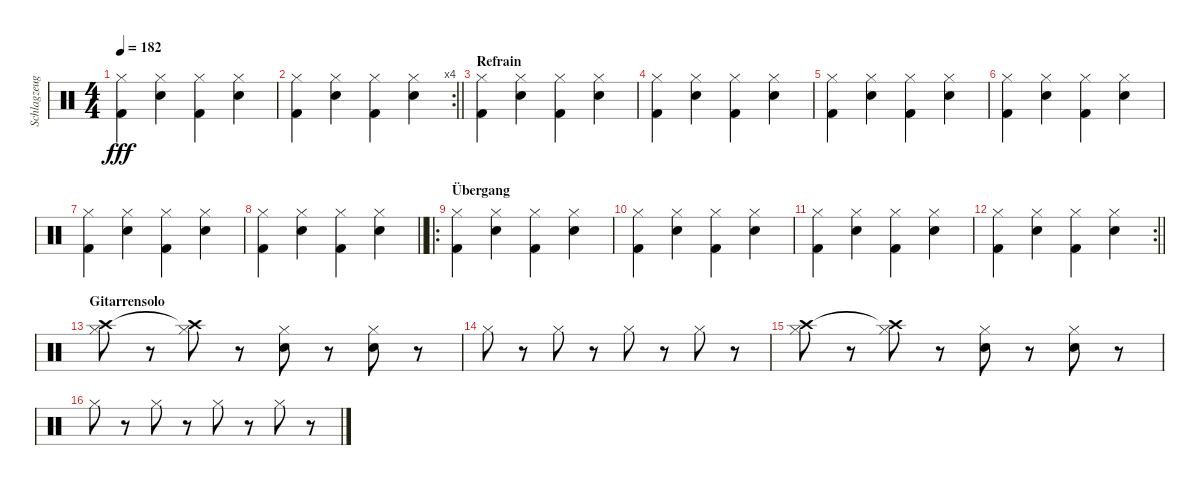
\track ("Schlagzeug" "Schlagzeug") {instrument percussion}
\staff {score}
\articulation defaults
\ts (4 4)
\tempo 182
\clef neutral
\ks c
("Hi-Hat (closed)" "Kick (hit) 2").4{dy fff} ("Hi-Hat (closed)" "Snare (hit) 2").4 ("Hi-Hat (closed)" "Kick (hit) 2").4 ("Hi-Hat (closed)" "Snare (hit) 2").4 |
\rc 4
\barLineRight lightlight
("Hi-Hat (closed)" "Kick (hit) 2").4 ("Hi-Hat (closed)" "Snare (hit) 2").4 ("Hi-Hat (closed)" "Kick (hit) 2").4 ("Hi-Hat (closed)" "Snare (hit) 2").4 |
\section ("" "Refrain")
("Hi-Hat (closed)" "Kick (hit) 2").4 ("Hi-Hat (closed)" "Snare (hit) 2").4 ("Hi-Hat (closed)" "Kick (hit) 2").4 ("Hi-Hat (closed)" "Snare (hit) 2").4 |
("Hi-Hat (closed)" "Kick (hit) 2").4 ("Hi-Hat (closed)" "Snare (hit) 2").4 ("Hi-Hat (closed)" "Kick (hit) 2").4 ("Hi-Hat (closed)" "Snare (hit) 2").4 |
("Hi-Hat (closed)" "Kick (hit) 2").4 ("Hi-Hat (closed)" "Snare (hit) 2").4 ("Hi-Hat (closed)" "Kick (hit) 2").4 ("Hi-Hat (closed)" "Snare (hit) 2").4 |
("Hi-Hat (closed)" "Kick (hit) 2").4 ("Hi-Hat (closed)" "Snare (hit) 2").4 ("Hi-Hat (closed)" "Kick (hit) 2").4 ("Hi-Hat (closed)" "Snare (hit) 2").4 |
("Hi-Hat (closed)" "Kick (hit) 2").4 ("Hi-Hat (closed)" "Snare (hit) 2").4 ("Hi-Hat (closed)" "Kick (hit) 2").4 ("Hi-Hat (closed)" "Snare (hit) 2").4 |
\barLineRight lightlight
("Hi-Hat (closed)" "Kick (hit) 2").4 ("Hi-Hat (closed)" "Snare (hit) 2").4 ("Hi-Hat (closed)" "Kick (hit) 2").4 ("Hi-Hat (closed)" "Snare (hit) 2").4 |
\ro
\section ("" "Übergang")
("Hi-Hat (closed)" "Kick (hit) 2").4 ("Hi-Hat (closed)" "Snare (hit) 2").4 ("Hi-Hat (closed)" "Kick (hit) 2").4 ("Hi-Hat (closed)" "Snare (hit) 2").4 |
("Hi-Hat (closed)" "Kick (hit) 2").4 ("Hi-Hat (closed)" "Snare (hit) 2").4 ("Hi-Hat (closed)" "Kick (hit) 2").4 ("Hi-Hat (closed)" "Snare (hit) 2").4 |
("Hi-Hat (closed)" "Kick (hit) 2").4 ("Hi-Hat (closed)" "Snare (hit) 2").4 ("Hi-Hat (closed)" "Kick (hit) 2").4 ("Hi-Hat (closed)" "Snare (hit) 2").4 |
\rc 2
\barLineRight lightlight
("Hi-Hat (closed)" "Kick (hit) 2").4 ("Hi-Hat (closed)" "Snare (hit) 2").4 ("Hi-Hat (closed)" "Kick (hit) 2").4 ("Hi-Hat (closed)" "Snare (hit) 2").4 |
\section ("" "Gitarrensolo")
("Crash high (hit)" "Hi-Hat (closed)").8 r.8 ("Crash high (hit)"{t} "Hi-Hat (closed)").8 r.8 ("Hi-Hat (closed)" "Snare (hit) 2").8 r.8 ("Hi-Hat (closed)" "Snare (hit) 2").8 r.8 |
"Hi-Hat (closed)".8 r.8 "Hi-Hat (closed)".8 r.8 "Hi-Hat (closed)".8 r.8 "Hi-Hat (closed)".8 r.8 |
("Crash high (hit)" "Hi-Hat (closed)").8 r.8 ("Crash high (hit)"{t} "Hi-Hat (closed)").8 r.8 ("Hi-Hat (closed)" "Snare (hit) 2").8 r.8 ("Hi-Hat (closed)" "Snare (hit) 2").8 r.8 |
"Hi-Hat (closed)".8 r.8 "Hi-Hat (closed)".8 r.8 "Hi-Hat (closed)".8 r.8 "Hi-Hat (closed)".8 r.8
